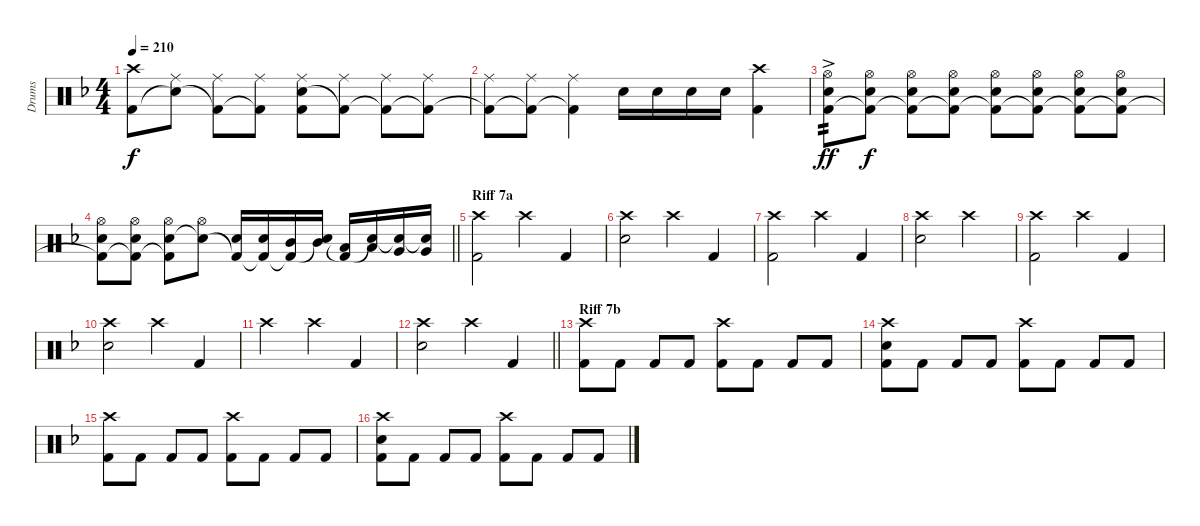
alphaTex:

\track ("Drums" "Drums") {instrument percussion}
\staff {score}
\articulation defaults
\ts (4 4)
\tempo 210
\clef neutral
\ks dminor
("Crash high (hit)" "Kick (hit) 2"{t}).8{dy f} ("Ride (middle)" "Snare (hit)"{t}).8 ("Ride (middle)" "Kick (hit) 2"{t}).8 ("Ride (middle)" "Kick (hit) 2"{t}).8 ("Ride (middle)" "Electric Snare (hit)" "Kick (hit) 2"{t}).8 ("Ride (middle)" "Kick (hit) 2"{t}).8 ("Ride (middle)" "Kick (hit) 2"{t}).8 ("Ride (middle)" "Kick (hit) 2"{t}).8 |
("Ride (middle)" "Kick (hit) 2"{t}).8 ("Ride (middle)" "Kick (hit) 2"{t}).8 ("Ride (middle)" "Kick (hit) 2"{t}).4 "Electric Snare (hit)".16 "Electric Snare (hit)".16 "Electric Snare (hit)".16 "Electric Snare (hit)".16 ("Crash high (hit)" "Kick (hit) 2").4 |
("Hi-Hat (open)" "Electric Snare (hit)" "Kick (hit) 2"{ac}).8{tp 2 dy ff} ("Hi-Hat (open)" "Electric Snare (hit)" "Kick (hit) 2"{t}).8{dy f} ("Hi-Hat (open)" "Electric Snare (hit)" "Kick (hit) 2"{t}).8 ("Hi-Hat (open)" "Electric Snare (hit)" "Kick (hit) 2"{t}).8 ("Hi-Hat (open)" "Electric Snare (hit)" "Kick (hit) 2"{t}).8 ("Hi-Hat (open)" "Electric Snare (hit)" "Kick (hit) 2"{t}).8 ("Hi-Hat (open)" "Electric Snare (hit)" "Kick (hit) 2"{t}).8 ("Hi-Hat (open)" "Electric Snare (hit)" "Kick (hit) 2"{t}).8 |
\barLineRight lightlight
("Hi-Hat (open)" "Electric Snare (hit)" "Kick (hit) 2"{t}).8 ("Hi-Hat (open)" "Electric Snare (hit)" "Kick (hit) 2"{t}).8 ("Hi-Hat (open)" "Electric Snare (hit)" "Kick (hit) 2"{t}).8 ("Hi-Hat (open)" "Snare (hit)"{t}).8 ("Electric Snare (hit)" "Kick (hit) 2"{t}).16 ("Electric Snare (hit)" "Kick (hit) 2"{t}).16 ("Mid Tom (hit)" "Kick (hit) 2"{t}).16 ("Mid Tom (hit)" "Snare (hit)"{t}).16 ("Low Tom (hit)" "Kick (hit) 2"{t}).16 ("Low Tom (hit)" "Snare (hit)"{t}).16 ("Very Low Tom (hit)" "Snare (hit)"{t}).16 ("Very Low Tom (hit)" "Snare (hit)"{t}).16 |
\section ("" "Riff 7a")
("Crash high (hit)" "Kick (hit) 2").2 "Crash high (hit)".4 "Kick (hit) 2".4 |
("Crash high (hit)" "Electric Snare (hit)").2 "Crash high (hit)".4 "Kick (hit) 2".4 |
("Crash high (hit)" "Kick (hit) 2").2 "Crash high (hit)".4 "Kick (hit) 2".4 |
("Crash high (hit)" "Electric Snare (hit)").2 "Crash high (hit)".2 |
("Crash high (hit)" "Kick (hit) 2").2 "Crash high (hit)".4 "Kick (hit) 2".4 |
("Crash high (hit)" "Electric Snare (hit)").2 "Crash high (hit)".4 "Kick (hit) 2".4 |
"Crash high (hit)".2 "Crash high (hit)".4 "Kick (hit) 2".4 |
\barLineRight lightlight
("Crash high (hit)" "Electric Snare (hit)").2 "Crash high (hit)".4 "Kick (hit) 2".4 |
\section ("" "Riff 7b")
("Crash high (hit)" "Kick (hit) 2").8 "Kick (hit) 2".8 "Kick (hit) 2".8 "Kick (hit) 2".8 ("Crash high (hit)" "Kick (hit) 2").8 "Kick (hit) 2".8 "Kick (hit) 2".8 "Kick (hit) 2".8 |
("Crash high (hit)" "Electric Snare (hit)" "Kick (hit) 2").8 "Kick (hit) 2".8 "Kick (hit) 2".8 "Kick (hit) 2".8 ("Crash high (hit)" "Kick (hit) 2").8 "Kick (hit) 2".8 "Kick (hit) 2".8 "Kick (hit) 2".8 |
("Crash high (hit)" "Kick (hit) 2").8 "Kick (hit) 2".8 "Kick (hit) 2".8 "Kick (hit) 2".8 ("Crash high (hit)" "Kick (hit) 2").8 "Kick (hit) 2".8 "Kick (hit) 2".8 "Kick (hit) 2".8 |
("Crash high (hit)" "Electric Snare (hit)" "Kick (hit) 2").8 "Kick (hit) 2".8 "Kick (hit) 2".8 "Kick (hit) 2".8 ("Crash high (hit)" "Kick (hit) 2").8 "Kick (hit) 2".8 "Kick (hit) 2".8 "Kick (hit) 2".8
